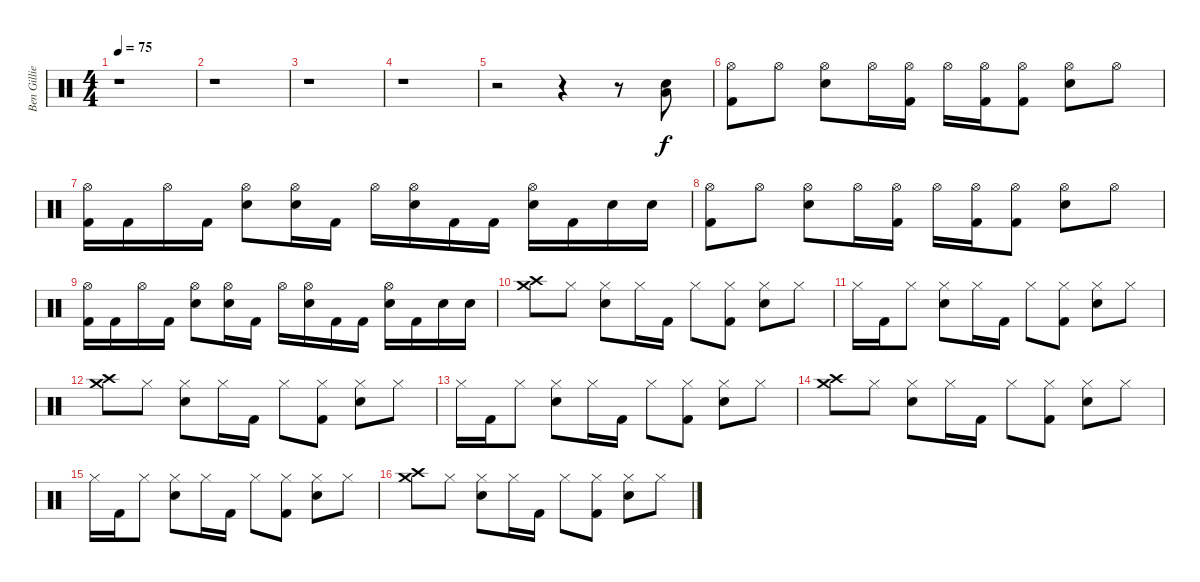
\track ("Ben Gillies" "Ben Gillie") {instrument percussion}
\staff {score}
\articulation defaults
\ts (4 4)
\tempo 75
\clef neutral
\ks c
r.1{dy f} |
r.1 |
r.1 |
r.1 |
r.2 r.4 r.8 ("Low Floor Tom (hit)" "Electric Snare (hit)").8 |
("Hi-Hat (open)" "Kick (hit) 2").8 "Hi-Hat (open)".8 ("Hi-Hat (open)" "Electric Snare (hit)").8 "Hi-Hat (open)".16 ("Hi-Hat (open)" "Kick (hit) 2").16 "Hi-Hat (open)".16 ("Hi-Hat (open)" "Kick (hit) 2").16 ("Hi-Hat (open)" "Kick (hit) 2").8 ("Hi-Hat (open)" "Electric Snare (hit)").8 "Hi-Hat (open)".8 |
("Hi-Hat (open)" "Kick (hit) 2").16 "Kick (hit) 2".16 "Hi-Hat (open)".16 "Kick (hit) 2".16 ("Hi-Hat (open)" "Electric Snare (hit)").8 ("Hi-Hat (open)" "Electric Snare (hit)").16 "Kick (hit) 2".16 "Hi-Hat (open)".16 ("Hi-Hat (open)" "Electric Snare (hit)").16 "Kick (hit) 2".16 "Kick (hit) 2".16 ("Hi-Hat (open)" "Electric Snare (hit)").16 "Kick (hit) 2".16 "Electric Snare (hit)".16 "Electric Snare (hit)".16 |
("Hi-Hat (open)" "Kick (hit) 2").8 "Hi-Hat (open)".8 ("Hi-Hat (open)" "Electric Snare (hit)").8 "Hi-Hat (open)".16 ("Hi-Hat (open)" "Kick (hit) 2").16 "Hi-Hat (open)".16 ("Hi-Hat (open)" "Kick (hit) 2").16 ("Hi-Hat (open)" "Kick (hit) 2").8 ("Hi-Hat (open)" "Electric Snare (hit)").8 "Hi-Hat (open)".8 |
("Hi-Hat (open)" "Kick (hit) 2").16 "Kick (hit) 2".16 "Hi-Hat (open)".16 "Kick (hit) 2".16 ("Hi-Hat (open)" "Electric Snare (hit)").8 ("Hi-Hat (open)" "Electric Snare (hit)").16 "Kick (hit) 2".16 "Hi-Hat (open)".16 ("Hi-Hat (open)" "Electric Snare (hit)").16 "Kick (hit) 2".16 "Kick (hit) 2".16 ("Hi-Hat (open)" "Electric Snare (hit)").16 "Kick (hit) 2".16 "Electric Snare (hit)".16 "Electric Snare (hit)".16 |
("Crash high (hit)" "Crash medium (hit)").8 "Hi-Hat (closed)".8 ("Hi-Hat (closed)" "Electric Snare (hit)").8 "Hi-Hat (closed)".16 "Kick (hit) 2".16 "Hi-Hat (closed)".8 ("Hi-Hat (closed)" "Kick (hit) 2").8 ("Hi-Hat (closed)" "Electric Snare (hit)").8 "Hi-Hat (closed)".8 |
"Hi-Hat (closed)".16 "Kick (hit) 2".16 "Hi-Hat (closed)".8 ("Hi-Hat (closed)" "Electric Snare (hit)").8 "Hi-Hat (closed)".16 "Kick (hit) 2".16 "Hi-Hat (closed)".8 ("Hi-Hat (closed)" "Kick (hit) 2").8 ("Hi-Hat (closed)" "Electric Snare (hit)").8 "Hi-Hat (closed)".8 |
("Crash high (hit)" "Crash medium (hit)").8 "Hi-Hat (closed)".8 ("Hi-Hat (closed)" "Electric Snare (hit)").8 "Hi-Hat (closed)".16 "Kick (hit) 2".16 "Hi-Hat (closed)".8 ("Hi-Hat (closed)" "Kick (hit) 2").8 ("Hi-Hat (closed)" "Electric Snare (hit)").8 "Hi-Hat (closed)".8 |
"Hi-Hat (closed)".16 "Kick (hit) 2".16 "Hi-Hat (closed)".8 ("Hi-Hat (closed)" "Electric Snare (hit)").8 "Hi-Hat (closed)".16 "Kick (hit) 2".16 "Hi-Hat (closed)".8 ("Hi-Hat (closed)" "Kick (hit) 2").8 ("Hi-Hat (closed)" "Electric Snare (hit)").8 "Hi-Hat (closed)".8 |
("Crash high (hit)" "Crash medium (hit)").8 "Hi-Hat (closed)".8 ("Hi-Hat (closed)" "Electric Snare (hit)").8 "Hi-Hat (closed)".16 "Kick (hit) 2".16 "Hi-Hat (closed)".8 ("Hi-Hat (closed)" "Kick (hit) 2").8 ("Hi-Hat (closed)" "Electric Snare (hit)").8 "Hi-Hat (closed)".8 |
"Hi-Hat (closed)".16 "Kick (hit) 2".16 "Hi-Hat (closed)".8 ("Hi-Hat (closed)" "Electric Snare (hit)").8 "Hi-Hat (closed)".16 "Kick (hit) 2".16 "Hi-Hat (closed)".8 ("Hi-Hat (closed)" "Kick (hit) 2").8 ("Hi-Hat (closed)" "Electric Snare (hit)").8 "Hi-Hat (closed)".8 |
("Crash high (hit)" "Crash medium (hit)").8 "Hi-Hat (closed)".8 ("Hi-Hat (closed)" "Electric Snare (hit)").8 "Hi-Hat (closed)".16 "Kick (hit) 2".16 "Hi-Hat (closed)".8 ("Hi-Hat (closed)" "Kick (hit) 2").8 ("Hi-Hat (closed)" "Electric Snare (hit)").8 "Hi-Hat (closed)".8
